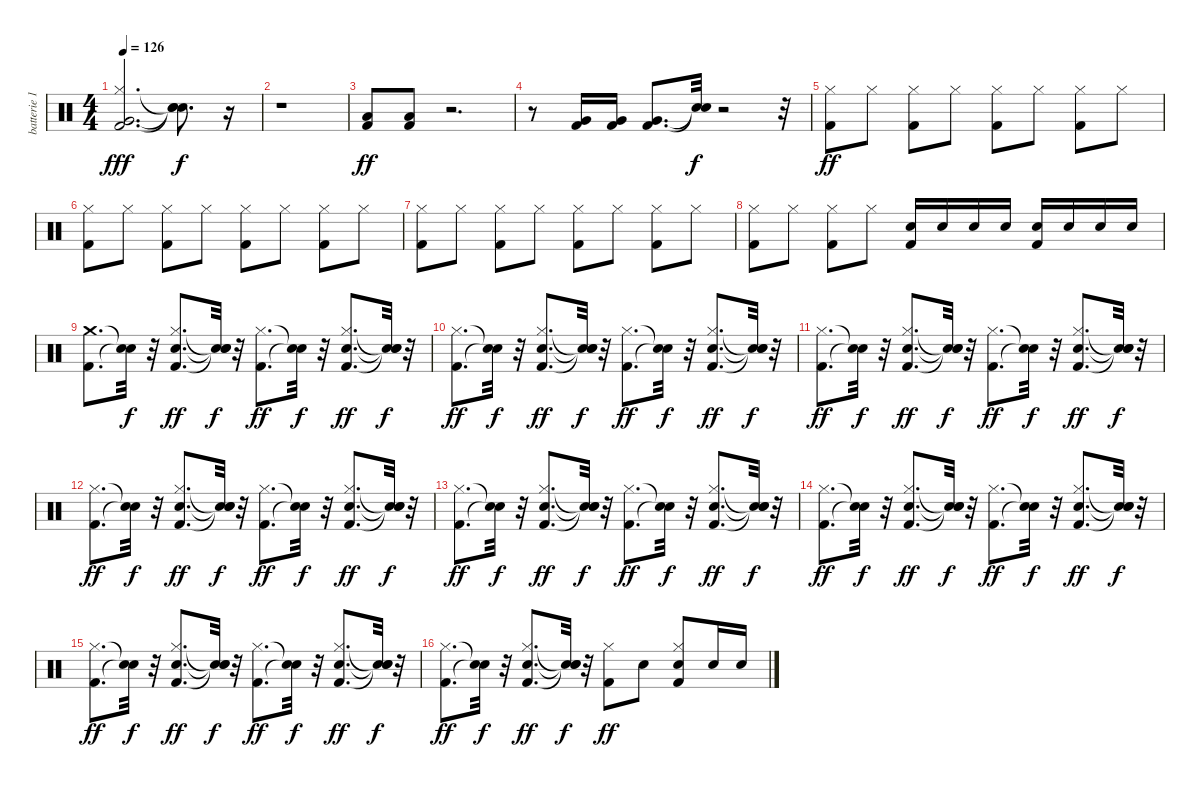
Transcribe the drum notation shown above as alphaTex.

\track ("batterie 1" "batterie 1") {instrument percussion}
\staff {score}
\articulation defaults
\ts (4 4)
\tempo 126
\clef neutral
\ks c
("Kick (hit) 2" "Hi-Hat (closed)" "Very Low Tom (hit)").2{d dy fff} ("Snare (hit)"{t} "Snare (hit)"{t} "Snare (hit)"{t}).8{d dy f} r.16 |
r.1 |
("Kick (hit) 2" "Low Floor Tom (hit)").8{dy ff} ("Kick (hit) 2" "Low Floor Tom (hit)").8 r.2{d} |
r.8 ("Kick (hit) 2" "Very Low Tom (hit)").16 ("Kick (hit) 2" "Very Low Tom (hit)").16 ("Kick (hit) 2" "Very Low Tom (hit)").8{d} ("Snare (hit)"{t} "Snare (hit)"{t}).32{dy f} r.2 r.32 |
("Kick (hit) 2" "Hi-Hat (closed)").8{dy ff} "Hi-Hat (closed)".8 ("Kick (hit) 2" "Hi-Hat (closed)").8 "Hi-Hat (closed)".8 ("Kick (hit) 2" "Hi-Hat (closed)").8 "Hi-Hat (closed)".8 ("Kick (hit) 2" "Hi-Hat (closed)").8 "Hi-Hat (closed)".8 |
("Kick (hit) 2" "Hi-Hat (closed)").8 "Hi-Hat (closed)".8 ("Kick (hit) 2" "Hi-Hat (closed)").8 "Hi-Hat (closed)".8 ("Kick (hit) 2" "Hi-Hat (closed)").8 "Hi-Hat (closed)".8 ("Kick (hit) 2" "Hi-Hat (closed)").8 "Hi-Hat (closed)".8 |
("Kick (hit) 2" "Hi-Hat (closed)").8 "Hi-Hat (closed)".8 ("Kick (hit) 2" "Hi-Hat (closed)").8 "Hi-Hat (closed)".8 ("Kick (hit) 2" "Hi-Hat (closed)").8 "Hi-Hat (closed)".8 ("Kick (hit) 2" "Hi-Hat (closed)").8 "Hi-Hat (closed)".8 |
("Kick (hit) 2" "Hi-Hat (closed)").8 "Hi-Hat (closed)".8 ("Kick (hit) 2" "Hi-Hat (closed)").8 "Hi-Hat (closed)".8 ("Kick (hit) 2" "Snare (hit) 2").16 "Snare (hit) 2".16 "Snare (hit) 2".16 "Snare (hit) 2".16 ("Kick (hit) 2" "Snare (hit) 2").16 "Snare (hit) 2".16 "Snare (hit) 2".16 "Snare (hit) 2".16 |
("Kick (hit) 2" "Crash medium (hit)").8{d} ("Snare (hit)"{t} "Snare (hit)"{t}).32{dy f} r.32 ("Kick (hit) 2" "Snare (hit) 2" "Hi-Hat (closed)").8{d dy ff} ("Snare (hit)"{t} "Snare (hit)"{t} "Snare (hit)"{t}).32{dy f} r.32 ("Kick (hit) 2" "Hi-Hat (closed)").8{d dy ff} ("Snare (hit)"{t} "Snare (hit)"{t}).32{dy f} r.32 ("Kick (hit) 2" "Snare (hit) 2" "Hi-Hat (closed)").8{d dy ff} ("Snare (hit)"{t} "Snare (hit)"{t} "Snare (hit)"{t}).32{dy f} r.32 |
("Kick (hit) 2" "Hi-Hat (closed)").8{d dy ff} ("Snare (hit)"{t} "Snare (hit)"{t}).32{dy f} r.32 ("Kick (hit) 2" "Snare (hit) 2" "Hi-Hat (closed)").8{d dy ff} ("Snare (hit)"{t} "Snare (hit)"{t} "Snare (hit)"{t}).32{dy f} r.32 ("Kick (hit) 2" "Hi-Hat (closed)").8{d dy ff} ("Snare (hit)"{t} "Snare (hit)"{t}).32{dy f} r.32 ("Kick (hit) 2" "Snare (hit) 2" "Hi-Hat (closed)").8{d dy ff} ("Snare (hit)"{t} "Snare (hit)"{t} "Snare (hit)"{t}).32{dy f} r.32 |
("Kick (hit) 2" "Hi-Hat (closed)").8{d dy ff} ("Snare (hit)"{t} "Snare (hit)"{t}).32{dy f} r.32 ("Kick (hit) 2" "Snare (hit) 2" "Hi-Hat (closed)").8{d dy ff} ("Snare (hit)"{t} "Snare (hit)"{t} "Snare (hit)"{t}).32{dy f} r.32 ("Kick (hit) 2" "Hi-Hat (closed)").8{d dy ff} ("Snare (hit)"{t} "Snare (hit)"{t}).32{dy f} r.32 ("Kick (hit) 2" "Snare (hit) 2" "Hi-Hat (closed)").8{d dy ff} ("Snare (hit)"{t} "Snare (hit)"{t} "Snare (hit)"{t}).32{dy f} r.32 |
("Kick (hit) 2" "Hi-Hat (closed)").8{d dy ff} ("Snare (hit)"{t} "Snare (hit)"{t}).32{dy f} r.32 ("Kick (hit) 2" "Snare (hit) 2" "Hi-Hat (closed)").8{d dy ff} ("Snare (hit)"{t} "Snare (hit)"{t} "Snare (hit)"{t}).32{dy f} r.32 ("Kick (hit) 2" "Hi-Hat (closed)").8{d dy ff} ("Snare (hit)"{t} "Snare (hit)"{t}).32{dy f} r.32 ("Kick (hit) 2" "Snare (hit) 2" "Hi-Hat (closed)").8{d dy ff} ("Snare (hit)"{t} "Snare (hit)"{t} "Snare (hit)"{t}).32{dy f} r.32 |
("Kick (hit) 2" "Hi-Hat (closed)").8{d dy ff} ("Snare (hit)"{t} "Snare (hit)"{t}).32{dy f} r.32 ("Kick (hit) 2" "Snare (hit) 2" "Hi-Hat (closed)").8{d dy ff} ("Snare (hit)"{t} "Snare (hit)"{t} "Snare (hit)"{t}).32{dy f} r.32 ("Kick (hit) 2" "Hi-Hat (closed)").8{d dy ff} ("Snare (hit)"{t} "Snare (hit)"{t}).32{dy f} r.32 ("Kick (hit) 2" "Snare (hit) 2" "Hi-Hat (closed)").8{d dy ff} ("Snare (hit)"{t} "Snare (hit)"{t} "Snare (hit)"{t}).32{dy f} r.32 |
("Kick (hit) 2" "Hi-Hat (closed)").8{d dy ff} ("Snare (hit)"{t} "Snare (hit)"{t}).32{dy f} r.32 ("Kick (hit) 2" "Snare (hit) 2" "Hi-Hat (closed)").8{d dy ff} ("Snare (hit)"{t} "Snare (hit)"{t} "Snare (hit)"{t}).32{dy f} r.32 ("Kick (hit) 2" "Hi-Hat (closed)").8{d dy ff} ("Snare (hit)"{t} "Snare (hit)"{t}).32{dy f} r.32 ("Kick (hit) 2" "Snare (hit) 2" "Hi-Hat (closed)").8{d dy ff} ("Snare (hit)"{t} "Snare (hit)"{t} "Snare (hit)"{t}).32{dy f} r.32 |
("Kick (hit) 2" "Hi-Hat (closed)").8{d dy ff} ("Snare (hit)"{t} "Snare (hit)"{t}).32{dy f} r.32 ("Kick (hit) 2" "Snare (hit) 2" "Hi-Hat (closed)").8{d dy ff} ("Snare (hit)"{t} "Snare (hit)"{t} "Snare (hit)"{t}).32{dy f} r.32 ("Kick (hit) 2" "Hi-Hat (closed)").8{d dy ff} ("Snare (hit)"{t} "Snare (hit)"{t}).32{dy f} r.32 ("Kick (hit) 2" "Snare (hit) 2" "Hi-Hat (closed)").8{d dy ff} ("Snare (hit)"{t} "Snare (hit)"{t} "Snare (hit)"{t}).32{dy f} r.32 |
("Kick (hit) 2" "Hi-Hat (closed)").8{d dy ff} ("Snare (hit)"{t} "Snare (hit)"{t}).32{dy f} r.32 ("Kick (hit) 2" "Snare (hit) 2" "Hi-Hat (closed)").8{d dy ff} ("Snare (hit)"{t} "Snare (hit)"{t} "Snare (hit)"{t}).32{dy f} r.32 ("Kick (hit) 2" "Hi-Hat (closed)").8{dy ff} "Snare (hit) 2".8 ("Kick (hit) 2" "Snare (hit) 2" "Hi-Hat (closed)").8 "Snare (hit) 2".16 "Snare (hit) 2".16
